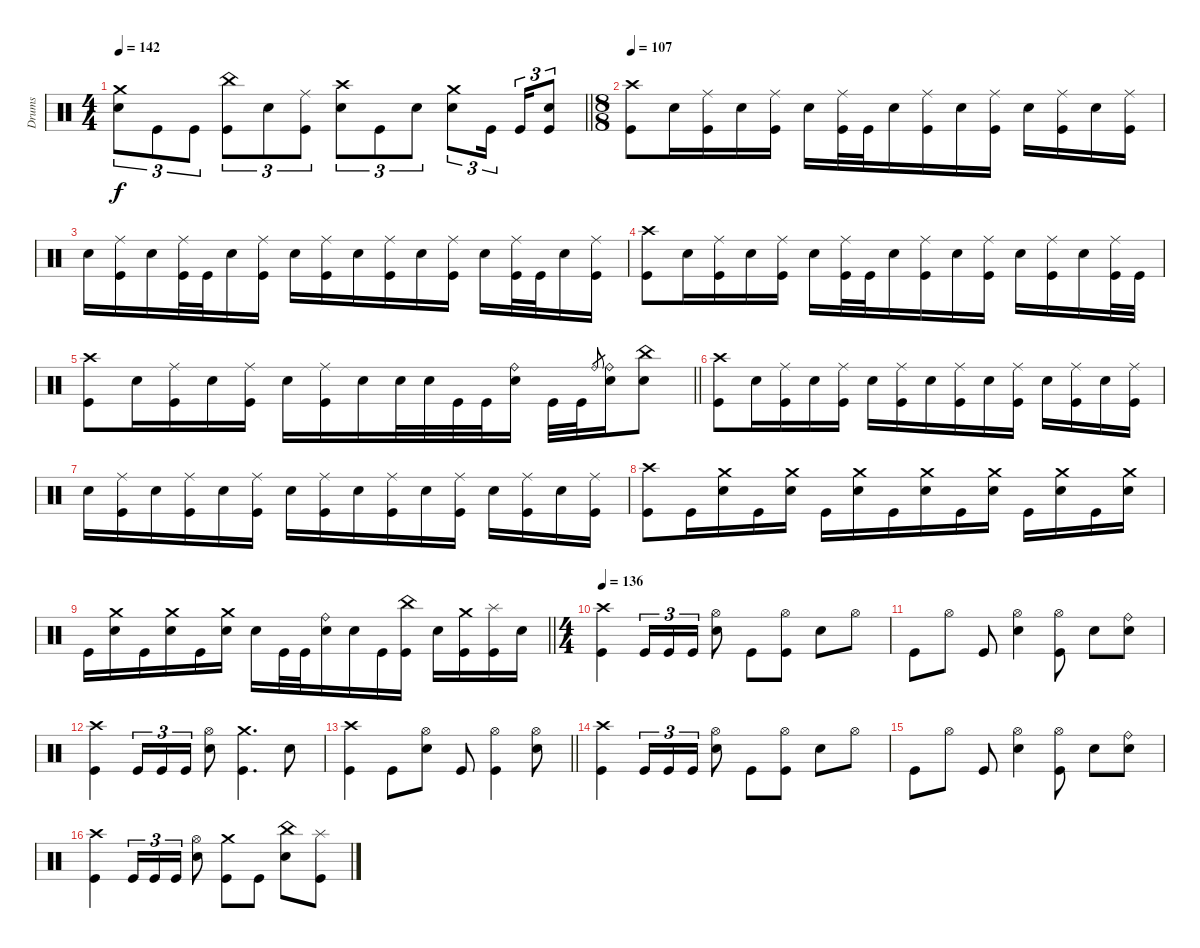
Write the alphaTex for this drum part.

\track ("Drums" "Drums") {instrument percussion}
\staff
\articulation defaults
\ts (4 4)
\tempo 142
\clef neutral
\barLineRight lightlight
\ks c
("Crash medium (hit)" "Electric Snare (hit)").8{tu (3 2) dy f} "Kick (hit)".8{tu (3 2)} "Kick (hit)".8{tu (3 2)} ("China (hit)" "Kick (hit)").8{tu (3 2)} "Electric Snare (hit)".8{tu (3 2)} ("Ride (middle)" "Kick (hit)").8{tu (3 2)} ("Crash high (hit)" "Electric Snare (hit)").8{tu (3 2)} "Kick (hit)".8{tu (3 2)} "Electric Snare (hit)".8{tu (3 2)} ("Crash medium (hit)" "Electric Snare (hit)").8{tu (3 2)} "Kick (hit)".16{tu (3 2) beam splitsecondary} "Kick (hit)".16{tu (3 2)} ("Electric Snare (hit)" "Kick (hit)").8{tu (3 2)} |
\ts (8 8)
\section ("" "")
\tempo 107
("Crash high (hit)" "Kick (hit)").8 "Electric Snare (hit)".16 ("Ride (middle)" "Kick (hit)").16 "Electric Snare (hit)".16 ("Ride (middle)" "Kick (hit)").16 "Electric Snare (hit)".16 ("Ride (middle)" "Kick (hit)").32 "Kick (hit)".32 "Electric Snare (hit)".16 ("Ride (middle)" "Kick (hit)").16 "Electric Snare (hit)".16 ("Ride (middle)" "Kick (hit)").16 "Electric Snare (hit)".16 ("Ride (middle)" "Kick (hit)").16 "Electric Snare (hit)".16 ("Ride (middle)" "Kick (hit)").16 |
"Electric Snare (hit)".16 ("Ride (middle)" "Kick (hit)").16 "Electric Snare (hit)".16 ("Ride (middle)" "Kick (hit)").32 "Kick (hit)".32 "Electric Snare (hit)".16 ("Ride (middle)" "Kick (hit)").16 "Electric Snare (hit)".16 ("Ride (middle)" "Kick (hit)").16 "Electric Snare (hit)".16 ("Ride (middle)" "Kick (hit)").16 "Electric Snare (hit)".16 ("Ride (middle)" "Kick (hit)").16 "Electric Snare (hit)".16 ("Ride (middle)" "Kick (hit)").32 "Kick (hit)".32 "Electric Snare (hit)".16 ("Ride (middle)" "Kick (hit)").16 |
("Crash high (hit)" "Kick (hit)").8 "Electric Snare (hit)".16 ("Ride (middle)" "Kick (hit)").16 "Electric Snare (hit)".16 ("Ride (middle)" "Kick (hit)").16 "Electric Snare (hit)".16 ("Ride (middle)" "Kick (hit)").32 "Kick (hit)".32 "Electric Snare (hit)".16 ("Ride (middle)" "Kick (hit)").16 "Electric Snare (hit)".16 ("Ride (middle)" "Kick (hit)").16 "Electric Snare (hit)".16 ("Ride (middle)" "Kick (hit)").16 "Electric Snare (hit)".16 ("Ride (middle)" "Kick (hit)").32 "Kick (hit)".32 |
\barLineRight lightlight
("Crash high (hit)" "Kick (hit)").8 "Electric Snare (hit)".16 ("Ride (middle)" "Kick (hit)").16 "Electric Snare (hit)".16 ("Ride (middle)" "Kick (hit)").16 "Electric Snare (hit)".16 ("Ride (middle)" "Kick (hit)").16 "Electric Snare (hit)".16 "Electric Snare (hit)".32 "Electric Snare (hit)".32 "Kick (hit)".32 "Kick (hit)".32 ("Ride (bell)" "Electric Snare (hit)").16 "Kick (hit)".32 "Kick (hit)".32 "Ride (bell)".8{gr} ("Ride (bell)" "Electric Snare (hit)").16 ("China (hit)" "Electric Snare (hit)").8 |
("Crash high (hit)" "Kick (hit)").8 "Electric Snare (hit)".16 ("Ride (middle)" "Kick (hit)").16 "Electric Snare (hit)".16 ("Ride (middle)" "Kick (hit)").16 "Electric Snare (hit)".16 ("Ride (middle)" "Kick (hit)").16 "Electric Snare (hit)".16 ("Ride (middle)" "Kick (hit)").16 "Electric Snare (hit)".16 ("Ride (middle)" "Kick (hit)").16 "Electric Snare (hit)".16 ("Ride (middle)" "Kick (hit)").16 "Electric Snare (hit)".16 ("Ride (middle)" "Kick (hit)").16 |
"Electric Snare (hit)".16 ("Ride (middle)" "Kick (hit)").16 "Electric Snare (hit)".16 ("Ride (middle)" "Kick (hit)").16 "Electric Snare (hit)".16 ("Ride (middle)" "Kick (hit)").16 "Electric Snare (hit)".16 ("Ride (middle)" "Kick (hit)").16 "Electric Snare (hit)".16 ("Ride (middle)" "Kick (hit)").16 "Electric Snare (hit)".16 ("Ride (middle)" "Kick (hit)").16 "Electric Snare (hit)".16 ("Ride (middle)" "Kick (hit)").16 "Electric Snare (hit)".16 ("Ride (middle)" "Kick (hit)").16 |
("Crash high (hit)" "Kick (hit)").8 "Kick (hit)".16 ("Crash medium (hit)" "Electric Snare (hit)").16 "Kick (hit)".16 ("Crash medium (hit)" "Electric Snare (hit)").16 "Kick (hit)".16 ("Crash medium (hit)" "Electric Snare (hit)").16 "Kick (hit)".16 ("Crash medium (hit)" "Electric Snare (hit)").16 "Kick (hit)".16 ("Crash medium (hit)" "Electric Snare (hit)").16 "Kick (hit)".16 ("Crash medium (hit)" "Electric Snare (hit)").16 "Kick (hit)".16 ("Crash medium (hit)" "Electric Snare (hit)").16 |
\barLineRight lightlight "Kick (hit)".16
("Crash medium (hit)" "Electric Snare (hit)").16 "Kick (hit)".16 ("Crash medium (hit)" "Electric Snare (hit)").16 "Kick (hit)".16 ("Crash medium (hit)" "Electric Snare (hit)").16 "Electric Snare (hit)".16 "Kick (hit)".32 "Kick (hit)".32 ("Ride (bell)" "Electric Snare (hit)").16 "Electric Snare (hit)".16 "Kick (hit)".16 ("China (hit)" "Kick (hit)").16 "Electric Snare (hit)".16 ("Crash medium (hit)" "Kick (hit)").16 ("Splash (hit)" "Kick (hit)").16 "Electric Snare (hit)".16 |
\ts (4 4)
\section ("" "")
\tempo 136
("Crash high (hit)" "Kick (hit)").4 "Kick (hit)".16{tu (3 2)} "Kick (hit)".16{tu (3 2)} "Kick (hit)".16{tu (3 2)} ("Hi-Hat (open)" "Electric Snare (hit)").8 "Kick (hit)".8 ("Hi-Hat (open)" "Kick (hit)").8 "Electric Snare (hit)".8 "Hi-Hat (open)".8 |
"Kick (hit)".8 "Hi-Hat (open)".8 "Kick (hit)".8 ("Hi-Hat (open)" "Electric Snare (hit)").4 ("Hi-Hat (open)" "Kick (hit)").8 "Electric Snare (hit)".8 ("Ride (bell)" "Electric Snare (hit)").8 |
("Crash high (hit)" "Kick (hit)").4 "Kick (hit)".16{tu (3 2)} "Kick (hit)".16{tu (3 2)} "Kick (hit)".16{tu (3 2)} ("Hi-Hat (open)" "Electric Snare (hit)").8 ("Crash medium (hit)" "Kick (hit)").4{d} "Electric Snare (hit)".8 |
\barLineRight lightlight
("Crash high (hit)" "Kick (hit)").4 "Kick (hit)".8 ("Hi-Hat (open)" "Electric Snare (hit)").8 "Kick (hit)".8 ("Hi-Hat (open)" "Kick (hit)").4 ("Hi-Hat (open)" "Electric Snare (hit)").8 |
("Crash high (hit)" "Kick (hit)").4 "Kick (hit)".16{tu (3 2)} "Kick (hit)".16{tu (3 2)} "Kick (hit)".16{tu (3 2)} ("Hi-Hat (open)" "Electric Snare (hit)").8 "Kick (hit)".8 ("Hi-Hat (open)" "Kick (hit)").8 "Electric Snare (hit)".8 "Hi-Hat (open)".8 |
"Kick (hit)".8 "Hi-Hat (open)".8 "Kick (hit)".8 ("Hi-Hat (open)" "Electric Snare (hit)").4 ("Hi-Hat (open)" "Kick (hit)").8 "Electric Snare (hit)".8 ("Ride (bell)" "Electric Snare (hit)").8 |
("Crash high (hit)" "Kick (hit)").4 "Kick (hit)".16{tu (3 2)} "Kick (hit)".16{tu (3 2)} "Kick (hit)".16{tu (3 2)} ("Hi-Hat (open)" "Electric Snare (hit)").8 ("Crash medium (hit)" "Kick (hit)").8 "Kick (hit)".8 ("China (hit)" "Electric Snare (hit)").8 ("Splash (hit)" "Kick (hit)").8
